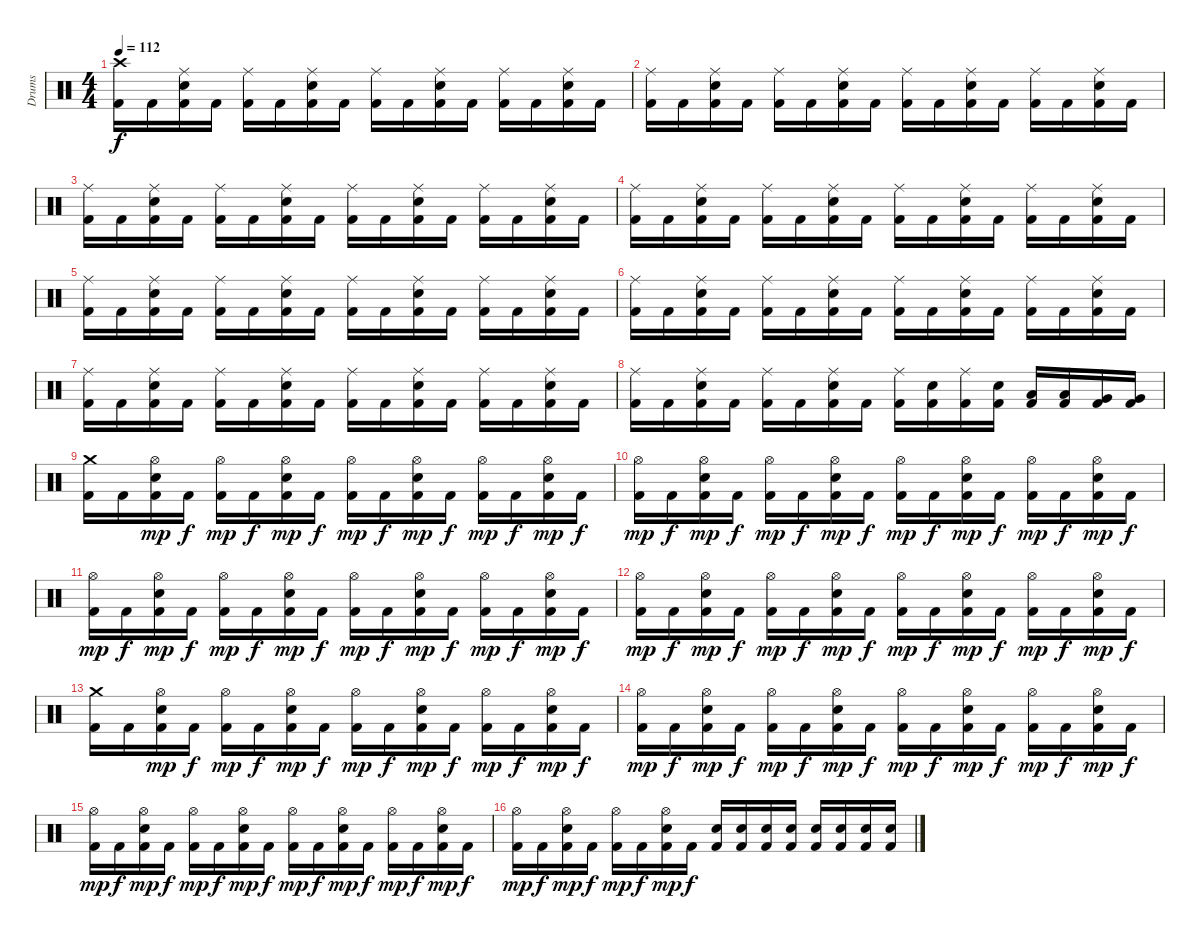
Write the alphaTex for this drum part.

\track ("Drums" "Drums") {instrument percussion}
\staff {score}
\articulation defaults
\ts (4 4)
\tempo 112
\clef neutral
\ks c
("Crash high (hit)" "Kick (hit) 2").16{dy f} "Kick (hit) 2".16 ("Ride (middle)" "Electric Snare (hit)" "Kick (hit) 2").16 "Kick (hit) 2".16 ("Ride (middle)" "Kick (hit) 2").16 "Kick (hit) 2".16 ("Ride (middle)" "Electric Snare (hit)" "Kick (hit) 2").16 "Kick (hit) 2".16 ("Ride (middle)" "Kick (hit) 2").16 "Kick (hit) 2".16 ("Ride (middle)" "Electric Snare (hit)" "Kick (hit) 2").16 "Kick (hit) 2".16 ("Ride (middle)" "Kick (hit) 2").16 "Kick (hit) 2".16 ("Ride (middle)" "Electric Snare (hit)" "Kick (hit) 2").16 "Kick (hit) 2".16 |
("Ride (middle)" "Kick (hit) 2").16 "Kick (hit) 2".16 ("Ride (middle)" "Electric Snare (hit)" "Kick (hit) 2").16 "Kick (hit) 2".16 ("Ride (middle)" "Kick (hit) 2").16 "Kick (hit) 2".16 ("Ride (middle)" "Electric Snare (hit)" "Kick (hit) 2").16 "Kick (hit) 2".16 ("Ride (middle)" "Kick (hit) 2").16 "Kick (hit) 2".16 ("Ride (middle)" "Electric Snare (hit)" "Kick (hit) 2").16 "Kick (hit) 2".16 ("Ride (middle)" "Kick (hit) 2").16 "Kick (hit) 2".16 ("Ride (middle)" "Electric Snare (hit)" "Kick (hit) 2").16 "Kick (hit) 2".16 |
("Ride (middle)" "Kick (hit) 2").16 "Kick (hit) 2".16 ("Ride (middle)" "Electric Snare (hit)" "Kick (hit) 2").16 "Kick (hit) 2".16 ("Ride (middle)" "Kick (hit) 2").16 "Kick (hit) 2".16 ("Ride (middle)" "Electric Snare (hit)" "Kick (hit) 2").16 "Kick (hit) 2".16 ("Ride (middle)" "Kick (hit) 2").16 "Kick (hit) 2".16 ("Ride (middle)" "Electric Snare (hit)" "Kick (hit) 2").16 "Kick (hit) 2".16 ("Ride (middle)" "Kick (hit) 2").16 "Kick (hit) 2".16 ("Ride (middle)" "Electric Snare (hit)" "Kick (hit) 2").16 "Kick (hit) 2".16 |
("Ride (middle)" "Kick (hit) 2").16 "Kick (hit) 2".16 ("Ride (middle)" "Electric Snare (hit)" "Kick (hit) 2").16 "Kick (hit) 2".16 ("Ride (middle)" "Kick (hit) 2").16 "Kick (hit) 2".16 ("Ride (middle)" "Electric Snare (hit)" "Kick (hit) 2").16 "Kick (hit) 2".16 ("Ride (middle)" "Kick (hit) 2").16 "Kick (hit) 2".16 ("Ride (middle)" "Electric Snare (hit)" "Kick (hit) 2").16 "Kick (hit) 2".16 ("Ride (middle)" "Kick (hit) 2").16 "Kick (hit) 2".16 ("Ride (middle)" "Electric Snare (hit)" "Kick (hit) 2").16 "Kick (hit) 2".16 |
("Ride (middle)" "Kick (hit) 2").16 "Kick (hit) 2".16 ("Ride (middle)" "Electric Snare (hit)" "Kick (hit) 2").16 "Kick (hit) 2".16 ("Ride (middle)" "Kick (hit) 2").16 "Kick (hit) 2".16 ("Ride (middle)" "Electric Snare (hit)" "Kick (hit) 2").16 "Kick (hit) 2".16 ("Ride (middle)" "Kick (hit) 2").16 "Kick (hit) 2".16 ("Ride (middle)" "Electric Snare (hit)" "Kick (hit) 2").16 "Kick (hit) 2".16 ("Ride (middle)" "Kick (hit) 2").16 "Kick (hit) 2".16 ("Ride (middle)" "Electric Snare (hit)" "Kick (hit) 2").16 "Kick (hit) 2".16 |
("Ride (middle)" "Kick (hit) 2").16 "Kick (hit) 2".16 ("Ride (middle)" "Electric Snare (hit)" "Kick (hit) 2").16 "Kick (hit) 2".16 ("Ride (middle)" "Kick (hit) 2").16 "Kick (hit) 2".16 ("Ride (middle)" "Electric Snare (hit)" "Kick (hit) 2").16 "Kick (hit) 2".16 ("Ride (middle)" "Kick (hit) 2").16 "Kick (hit) 2".16 ("Ride (middle)" "Electric Snare (hit)" "Kick (hit) 2").16 "Kick (hit) 2".16 ("Ride (middle)" "Kick (hit) 2").16 "Kick (hit) 2".16 ("Ride (middle)" "Electric Snare (hit)" "Kick (hit) 2").16 "Kick (hit) 2".16 |
("Ride (middle)" "Kick (hit) 2").16 "Kick (hit) 2".16 ("Ride (middle)" "Electric Snare (hit)" "Kick (hit) 2").16 "Kick (hit) 2".16 ("Ride (middle)" "Kick (hit) 2").16 "Kick (hit) 2".16 ("Ride (middle)" "Electric Snare (hit)" "Kick (hit) 2").16 "Kick (hit) 2".16 ("Ride (middle)" "Kick (hit) 2").16 "Kick (hit) 2".16 ("Ride (middle)" "Electric Snare (hit)" "Kick (hit) 2").16 "Kick (hit) 2".16 ("Ride (middle)" "Kick (hit) 2").16 "Kick (hit) 2".16 ("Ride (middle)" "Electric Snare (hit)" "Kick (hit) 2").16 "Kick (hit) 2".16 |
("Ride (middle)" "Kick (hit) 2").16 "Kick (hit) 2".16 ("Ride (middle)" "Electric Snare (hit)" "Kick (hit) 2").16 "Kick (hit) 2".16 ("Ride (middle)" "Kick (hit) 2").16 "Kick (hit) 2".16 ("Ride (middle)" "Electric Snare (hit)" "Kick (hit) 2").16 "Kick (hit) 2".16 ("Ride (middle)" "Kick (hit) 2").16 ("Electric Snare (hit)" "Kick (hit) 2").16 ("Ride (middle)" "Kick (hit) 2").16 ("Electric Snare (hit)" "Kick (hit) 2").16 ("Low Tom (hit)" "Kick (hit) 2").16 ("Low Tom (hit)" "Kick (hit) 2").16 ("Very Low Tom (hit)" "Kick (hit) 2").16 ("Very Low Tom (hit)" "Kick (hit) 2").16 |
("Crash medium (hit)" "Kick (hit) 2").16 "Kick (hit) 2".16 ("Hi-Hat (open)" "Electric Snare (hit)" "Kick (hit) 2").16{dy mp} "Kick (hit) 2".16{dy f} ("Hi-Hat (open)" "Kick (hit) 2").16{dy mp} "Kick (hit) 2".16{dy f} ("Hi-Hat (open)" "Electric Snare (hit)" "Kick (hit) 2").16{dy mp} "Kick (hit) 2".16{dy f} ("Hi-Hat (open)" "Kick (hit) 2").16{dy mp} "Kick (hit) 2".16{dy f} ("Hi-Hat (open)" "Electric Snare (hit)" "Kick (hit) 2").16{dy mp} "Kick (hit) 2".16{dy f} ("Hi-Hat (open)" "Kick (hit) 2").16{dy mp} "Kick (hit) 2".16{dy f} ("Hi-Hat (open)" "Electric Snare (hit)" "Kick (hit) 2").16{dy mp} "Kick (hit) 2".16{dy f} |
("Hi-Hat (open)" "Kick (hit) 2").16{dy mp} "Kick (hit) 2".16{dy f} ("Hi-Hat (open)" "Electric Snare (hit)" "Kick (hit) 2").16{dy mp} "Kick (hit) 2".16{dy f} ("Hi-Hat (open)" "Kick (hit) 2").16{dy mp} "Kick (hit) 2".16{dy f} ("Hi-Hat (open)" "Electric Snare (hit)" "Kick (hit) 2").16{dy mp} "Kick (hit) 2".16{dy f} ("Hi-Hat (open)" "Kick (hit) 2").16{dy mp} "Kick (hit) 2".16{dy f} ("Hi-Hat (open)" "Electric Snare (hit)" "Kick (hit) 2").16{dy mp} "Kick (hit) 2".16{dy f} ("Hi-Hat (open)" "Kick (hit) 2").16{dy mp} "Kick (hit) 2".16{dy f} ("Hi-Hat (open)" "Electric Snare (hit)" "Kick (hit) 2").16{dy mp} "Kick (hit) 2".16{dy f} |
("Hi-Hat (open)" "Kick (hit) 2").16{dy mp} "Kick (hit) 2".16{dy f} ("Hi-Hat (open)" "Electric Snare (hit)" "Kick (hit) 2").16{dy mp} "Kick (hit) 2".16{dy f} ("Hi-Hat (open)" "Kick (hit) 2").16{dy mp} "Kick (hit) 2".16{dy f} ("Hi-Hat (open)" "Electric Snare (hit)" "Kick (hit) 2").16{dy mp} "Kick (hit) 2".16{dy f} ("Hi-Hat (open)" "Kick (hit) 2").16{dy mp} "Kick (hit) 2".16{dy f} ("Hi-Hat (open)" "Electric Snare (hit)" "Kick (hit) 2").16{dy mp} "Kick (hit) 2".16{dy f} ("Hi-Hat (open)" "Kick (hit) 2").16{dy mp} "Kick (hit) 2".16{dy f} ("Hi-Hat (open)" "Electric Snare (hit)" "Kick (hit) 2").16{dy mp} "Kick (hit) 2".16{dy f} |
("Hi-Hat (open)" "Kick (hit) 2").16{dy mp} "Kick (hit) 2".16{dy f} ("Hi-Hat (open)" "Electric Snare (hit)" "Kick (hit) 2").16{dy mp} "Kick (hit) 2".16{dy f} ("Hi-Hat (open)" "Kick (hit) 2").16{dy mp} "Kick (hit) 2".16{dy f} ("Hi-Hat (open)" "Electric Snare (hit)" "Kick (hit) 2").16{dy mp} "Kick (hit) 2".16{dy f} ("Hi-Hat (open)" "Kick (hit) 2").16{dy mp} "Kick (hit) 2".16{dy f} ("Hi-Hat (open)" "Electric Snare (hit)" "Kick (hit) 2").16{dy mp} "Kick (hit) 2".16{dy f} ("Hi-Hat (open)" "Kick (hit) 2").16{dy mp} "Kick (hit) 2".16{dy f} ("Hi-Hat (open)" "Electric Snare (hit)" "Kick (hit) 2").16{dy mp} "Kick (hit) 2".16{dy f} |
("Crash medium (hit)" "Kick (hit) 2").16 "Kick (hit) 2".16 ("Hi-Hat (open)" "Electric Snare (hit)" "Kick (hit) 2").16{dy mp} "Kick (hit) 2".16{dy f} ("Hi-Hat (open)" "Kick (hit) 2").16{dy mp} "Kick (hit) 2".16{dy f} ("Hi-Hat (open)" "Electric Snare (hit)" "Kick (hit) 2").16{dy mp} "Kick (hit) 2".16{dy f} ("Hi-Hat (open)" "Kick (hit) 2").16{dy mp} "Kick (hit) 2".16{dy f} ("Hi-Hat (open)" "Electric Snare (hit)" "Kick (hit) 2").16{dy mp} "Kick (hit) 2".16{dy f} ("Hi-Hat (open)" "Kick (hit) 2").16{dy mp} "Kick (hit) 2".16{dy f} ("Hi-Hat (open)" "Electric Snare (hit)" "Kick (hit) 2").16{dy mp} "Kick (hit) 2".16{dy f} |
("Hi-Hat (open)" "Kick (hit) 2").16{dy mp} "Kick (hit) 2".16{dy f} ("Hi-Hat (open)" "Electric Snare (hit)" "Kick (hit) 2").16{dy mp} "Kick (hit) 2".16{dy f} ("Hi-Hat (open)" "Kick (hit) 2").16{dy mp} "Kick (hit) 2".16{dy f} ("Hi-Hat (open)" "Electric Snare (hit)" "Kick (hit) 2").16{dy mp} "Kick (hit) 2".16{dy f} ("Hi-Hat (open)" "Kick (hit) 2").16{dy mp} "Kick (hit) 2".16{dy f} ("Hi-Hat (open)" "Electric Snare (hit)" "Kick (hit) 2").16{dy mp} "Kick (hit) 2".16{dy f} ("Hi-Hat (open)" "Kick (hit) 2").16{dy mp} "Kick (hit) 2".16{dy f} ("Hi-Hat (open)" "Electric Snare (hit)" "Kick (hit) 2").16{dy mp} "Kick (hit) 2".16{dy f} |
("Hi-Hat (open)" "Kick (hit) 2").16{dy mp} "Kick (hit) 2".16{dy f} ("Hi-Hat (open)" "Electric Snare (hit)" "Kick (hit) 2").16{dy mp} "Kick (hit) 2".16{dy f} ("Hi-Hat (open)" "Kick (hit) 2").16{dy mp} "Kick (hit) 2".16{dy f} ("Hi-Hat (open)" "Electric Snare (hit)" "Kick (hit) 2").16{dy mp} "Kick (hit) 2".16{dy f} ("Hi-Hat (open)" "Kick (hit) 2").16{dy mp} "Kick (hit) 2".16{dy f} ("Hi-Hat (open)" "Electric Snare (hit)" "Kick (hit) 2").16{dy mp} "Kick (hit) 2".16{dy f} ("Hi-Hat (open)" "Kick (hit) 2").16{dy mp} "Kick (hit) 2".16{dy f} ("Hi-Hat (open)" "Electric Snare (hit)" "Kick (hit) 2").16{dy mp} "Kick (hit) 2".16{dy f} |
("Hi-Hat (open)" "Kick (hit) 2").16{dy mp} "Kick (hit) 2".16{dy f} ("Hi-Hat (open)" "Electric Snare (hit)" "Kick (hit) 2").16{dy mp} "Kick (hit) 2".16{dy f} ("Hi-Hat (open)" "Kick (hit) 2").16{dy mp} "Kick (hit) 2".16{dy f} ("Hi-Hat (open)" "Electric Snare (hit)" "Kick (hit) 2").16{dy mp} "Kick (hit) 2".16{dy f} ("Electric Snare (hit)" "Kick (hit) 2").16 ("Electric Snare (hit)" "Kick (hit) 2").16 ("Electric Snare (hit)" "Kick (hit) 2").16 ("Electric Snare (hit)" "Kick (hit) 2").16 ("Electric Snare (hit)" "Kick (hit) 2").16 ("Electric Snare (hit)" "Kick (hit) 2").16 ("Electric Snare (hit)" "Kick (hit) 2").16 ("Electric Snare (hit)" "Kick (hit) 2").16
